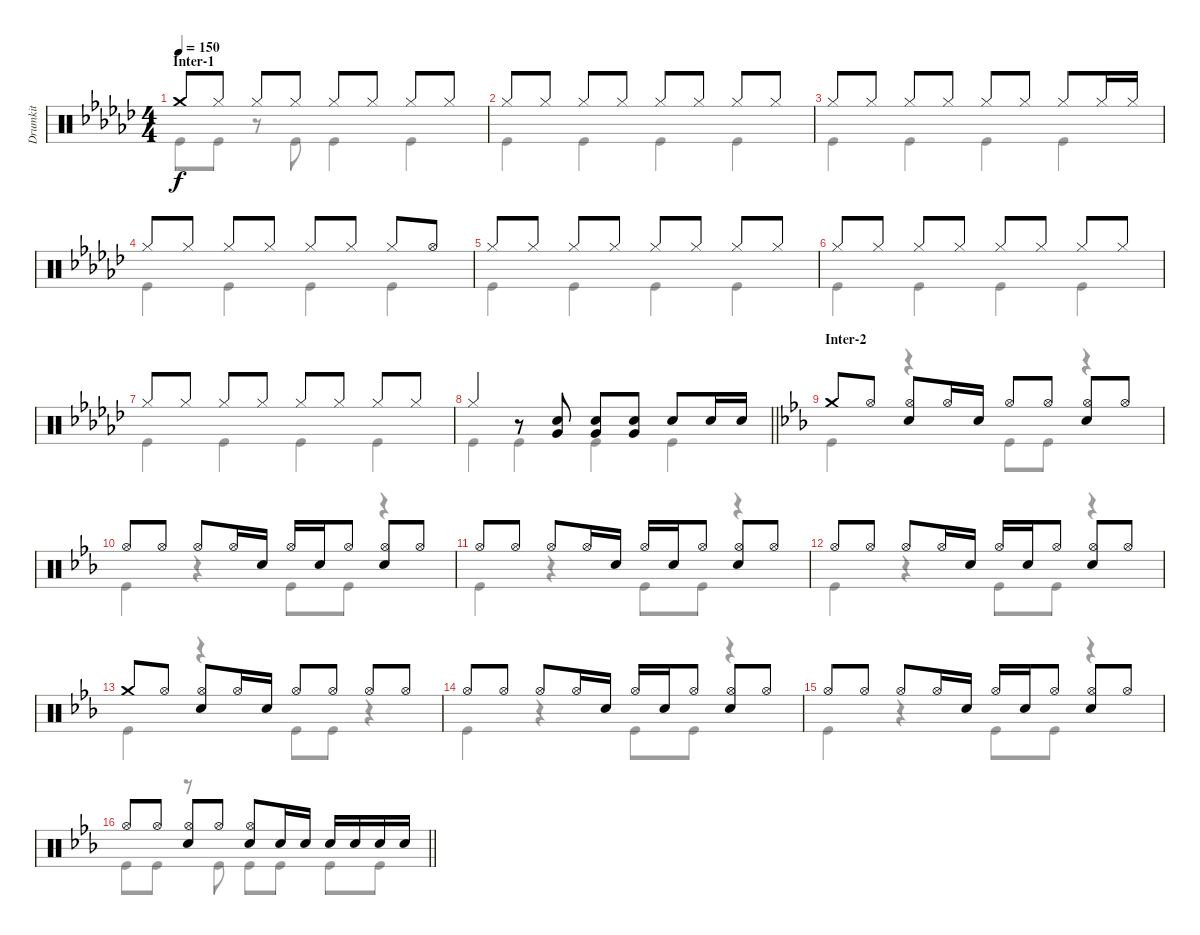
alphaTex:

\track ("Drumkit" "Drumkit") {instrument percussion}
\staff {score}
\articulation defaults
\voice
\ts (4 4)
\section ("" "Inter-1")
\tempo 150
\clef neutral
\ks ebminor "Crash medium (hit)".8{dy f} "Hi-Hat (closed)".8 "Hi-Hat (closed)".8 "Hi-Hat (closed)".8 "Hi-Hat (closed)".8 "Hi-Hat (closed)".8 "Hi-Hat (closed)".8 "Hi-Hat (closed)".8
|
"Hi-Hat (closed)".8 "Hi-Hat (closed)".8 "Hi-Hat (closed)".8 "Hi-Hat (closed)".8 "Hi-Hat (closed)".8 "Hi-Hat (closed)".8 "Hi-Hat (closed)".8 "Hi-Hat (closed)".8 |
"Hi-Hat (closed)".8 "Hi-Hat (closed)".8 "Hi-Hat (closed)".8 "Hi-Hat (closed)".8 "Hi-Hat (closed)".8 "Hi-Hat (closed)".8 "Hi-Hat (closed)".8 "Hi-Hat (closed)".16 "Hi-Hat (closed)".16 |
"Hi-Hat (closed)".8 "Hi-Hat (closed)".8 "Hi-Hat (closed)".8 "Hi-Hat (closed)".8 "Hi-Hat (closed)".8 "Hi-Hat (closed)".8 "Hi-Hat (closed)".8 "Hi-Hat (open)".8 |
"Hi-Hat (closed)".8 "Hi-Hat (closed)".8 "Hi-Hat (closed)".8 "Hi-Hat (closed)".8 "Hi-Hat (closed)".8 "Hi-Hat (closed)".8 "Hi-Hat (closed)".8 "Hi-Hat (closed)".8 |
"Hi-Hat (closed)".8 "Hi-Hat (closed)".8 "Hi-Hat (closed)".8 "Hi-Hat (closed)".8 "Hi-Hat (closed)".8 "Hi-Hat (closed)".8 "Hi-Hat (closed)".8 "Hi-Hat (closed)".8 |
"Hi-Hat (closed)".8 "Hi-Hat (closed)".8 "Hi-Hat (closed)".8 "Hi-Hat (closed)".8 "Hi-Hat (closed)".8 "Hi-Hat (closed)".8 "Hi-Hat (closed)".8 "Hi-Hat (closed)".8 |
\barLineRight lightlight "Hi-Hat (closed)".4
r.8 ("Snare (hit) 2" "Very Low Tom (hit)").8 ("Very Low Tom (hit)" "Snare (hit) 2").8 ("Snare (hit) 2" "Very Low Tom (hit)").8 "Snare (hit) 2".8 "Snare (hit) 2".16 "Snare (hit) 2".16 |
\section ("" "Inter-2")
\ks eb "Crash medium (hit)".8 "Hi-Hat (open)".8
("Hi-Hat (open)" "Snare (hit) 2").8 "Hi-Hat (open)".16 "Snare (hit) 2".16 "Hi-Hat (open)".8 "Hi-Hat (open)".8 ("Hi-Hat (open)" "Snare (hit) 2").8 "Hi-Hat (open)".8 |
"Hi-Hat (open)".8 "Hi-Hat (open)".8 "Hi-Hat (open)".8 "Hi-Hat (open)".16 "Snare (hit) 2".16 "Hi-Hat (open)".16 "Snare (hit) 2".16 "Hi-Hat (open)".8 ("Hi-Hat (open)" "Snare (hit) 2").8 "Hi-Hat (open)".8 |
"Hi-Hat (open)".8 "Hi-Hat (open)".8 "Hi-Hat (open)".8 "Hi-Hat (open)".16 "Snare (hit) 2".16 "Hi-Hat (open)".16 "Snare (hit) 2".16 "Hi-Hat (open)".8 ("Hi-Hat (open)" "Snare (hit) 2").8 "Hi-Hat (open)".8 |
"Hi-Hat (open)".8 "Hi-Hat (open)".8 "Hi-Hat (open)".8 "Hi-Hat (open)".16 "Snare (hit) 2".16 "Hi-Hat (open)".16 "Snare (hit) 2".16 "Hi-Hat (open)".8 ("Hi-Hat (open)" "Snare (hit) 2").8 "Hi-Hat (open)".8 |
"Crash medium (hit)".8 "Hi-Hat (open)".8 ("Hi-Hat (open)" "Snare (hit) 2").8 "Hi-Hat (open)".16 "Snare (hit) 2".16 "Hi-Hat (open)".8 "Hi-Hat (open)".8 "Hi-Hat (open)".8 "Hi-Hat (open)".8 |
"Hi-Hat (open)".8 "Hi-Hat (open)".8 "Hi-Hat (open)".8 "Hi-Hat (open)".16 "Snare (hit) 2".16 "Hi-Hat (open)".16 "Snare (hit) 2".16 "Hi-Hat (open)".8 ("Hi-Hat (open)" "Snare (hit) 2").8 "Hi-Hat (open)".8 |
"Hi-Hat (open)".8 "Hi-Hat (open)".8 "Hi-Hat (open)".8 "Hi-Hat (open)".16 "Snare (hit) 2".16 "Hi-Hat (open)".16 "Snare (hit) 2".16 "Hi-Hat (open)".8 ("Hi-Hat (open)" "Snare (hit) 2").8 "Hi-Hat (open)".8 |
\barLineRight lightlight "Hi-Hat (open)".8 "Hi-Hat (open)".8
("Hi-Hat (open)" "Snare (hit) 2").8 "Hi-Hat (open)".8 ("Hi-Hat (open)" "Snare (hit) 2").8 "Snare (hit) 2".16 "Snare (hit) 2".16 "Snare (hit) 2".16 "Snare (hit) 2".16 "Snare (hit) 2".16 "Snare (hit) 2".16
\voice
\clef neutral
\ottava regular
\simile none
\ks ebminor "Kick (hit)".8{dy f} "Kick (hit)".8
r.8 "Kick (hit)".8 "Kick (hit)".4 "Kick (hit)".4 |
"Kick (hit)".4 "Kick (hit)".4 "Kick (hit)".4 "Kick (hit)".4 |
"Kick (hit)".4 "Kick (hit)".4 "Kick (hit)".4 "Kick (hit)".4 |
"Kick (hit)".4 "Kick (hit)".4 "Kick (hit)".4 "Kick (hit)".4 |
"Kick (hit)".4 "Kick (hit)".4 "Kick (hit)".4 "Kick (hit)".4 |
"Kick (hit)".4 "Kick (hit)".4 "Kick (hit)".4 "Kick (hit)".4 |
"Kick (hit)".4 "Kick (hit)".4 "Kick (hit)".4 "Kick (hit)".4 |
\barLineRight lightlight "Kick (hit)".4 "Kick (hit)".4 "Kick (hit)".4 "Kick (hit)".4
|
\ks eb "Kick (hit)".4
r.4 "Kick (hit)".8 "Kick (hit)".8 r.4 |
"Kick (hit)".4 r.4 "Kick (hit)".8 "Kick (hit)".8 r.4 |
"Kick (hit)".4 r.4 "Kick (hit)".8 "Kick (hit)".8 r.4 |
"Kick (hit)".4 r.4 "Kick (hit)".8 "Kick (hit)".8 r.4 |
"Kick (hit)".4 r.4 "Kick (hit)".8 "Kick (hit)".8 r.4 |
"Kick (hit)".4 r.4 "Kick (hit)".8 "Kick (hit)".8 r.4 |
"Kick (hit)".4 r.4 "Kick (hit)".8 "Kick (hit)".8 r.4 |
\barLineRight lightlight "Kick (hit)".8 "Kick (hit)".8
r.8 "Kick (hit)".8 "Kick (hit)".8 "Kick (hit)".8 "Kick (hit)".8 "Kick (hit)".8
